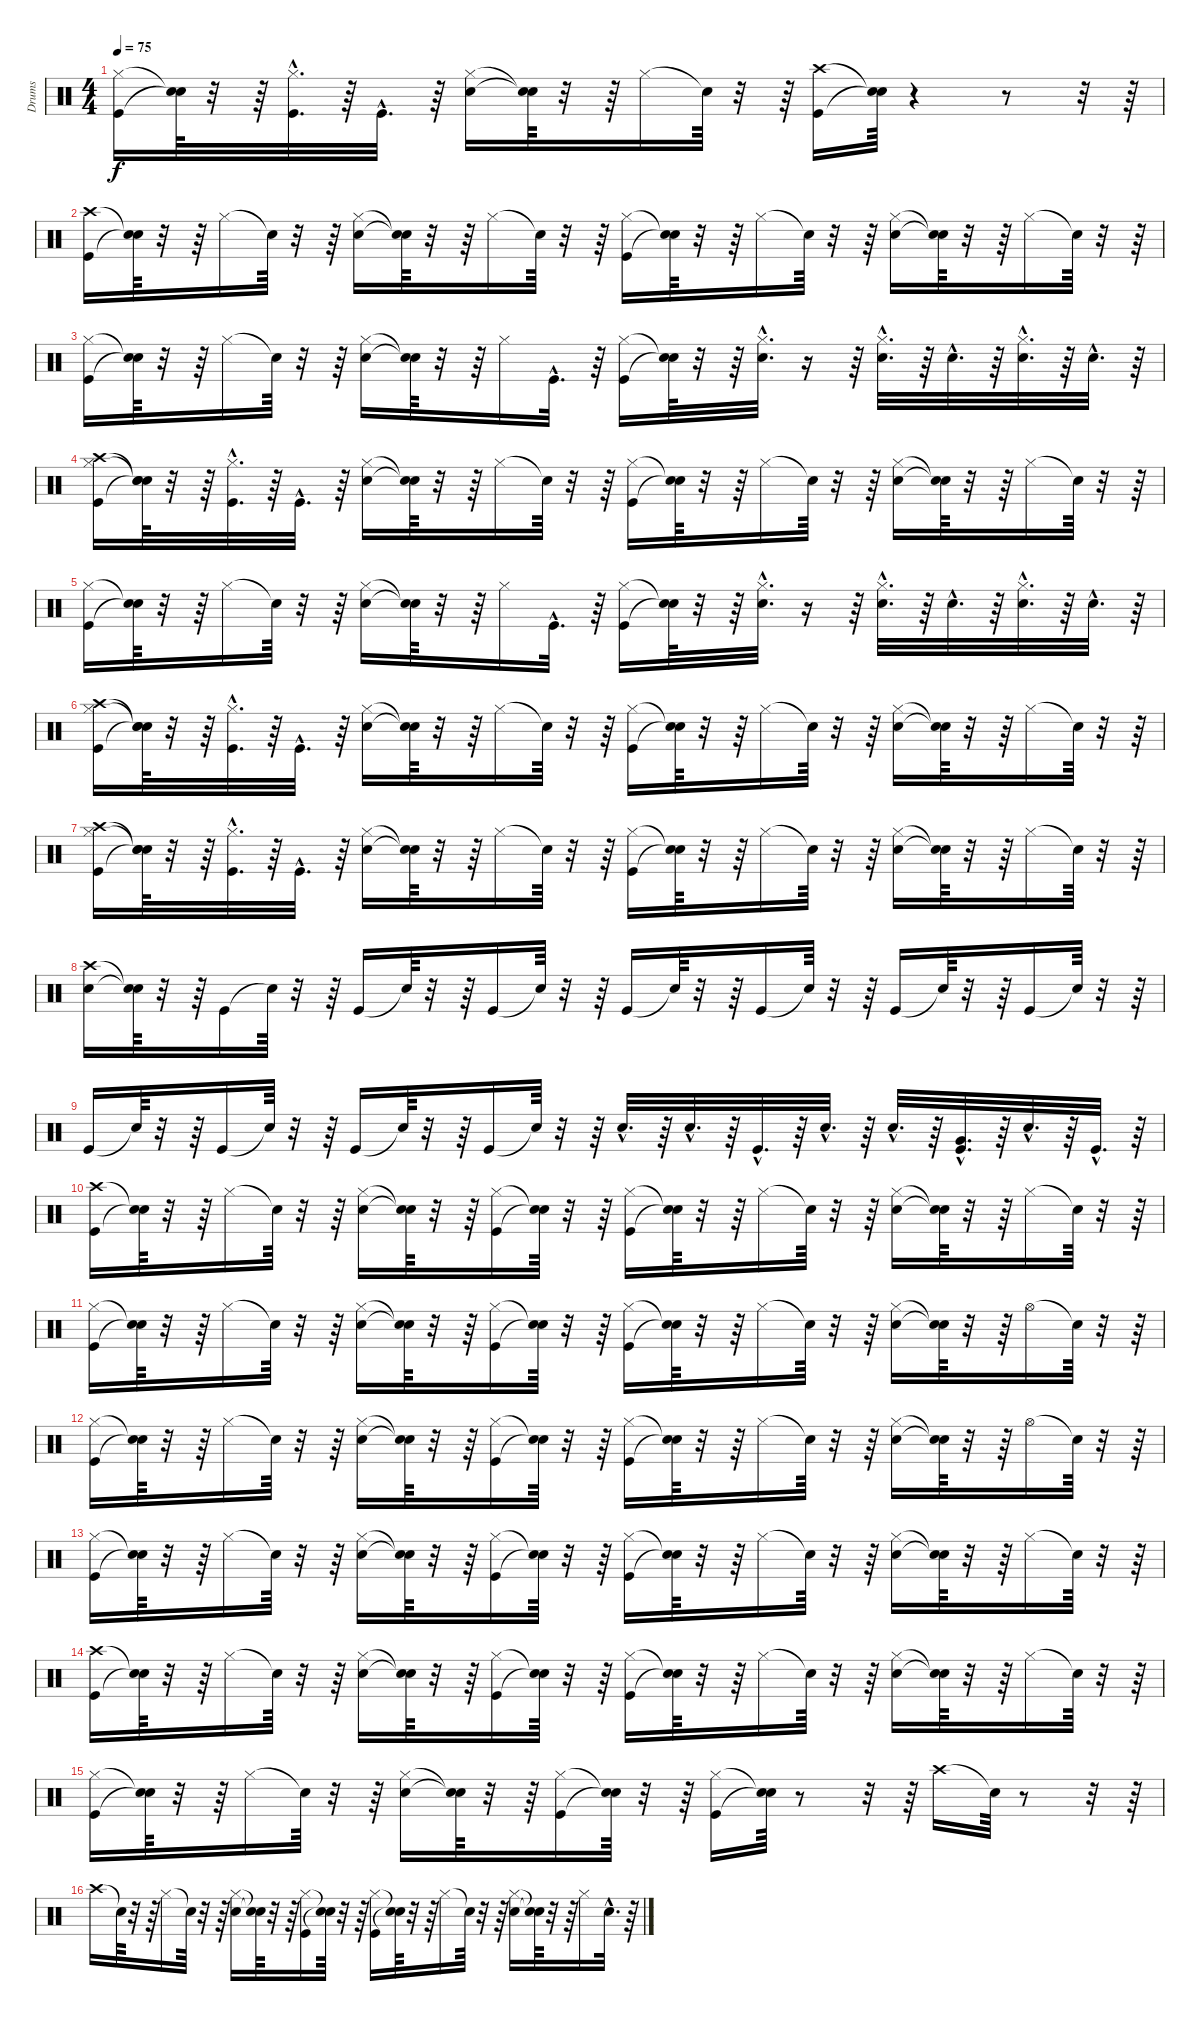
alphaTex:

\track ("Drums" "Drums") {instrument percussion}
\staff {score}
\articulation defaults
\ts (4 4)
\tempo 75
\clef neutral
\ks c
("Kick (hit)" "Hi-Hat (closed)").16{dy f} ("Snare (hit)"{t} "Snare (hit)"{t}).64 r.32 r.64 ("Kick (hit)"{hac} "Hi-Hat (closed)"{hac}).32{d} r.64 "Kick (hit)"{hac}.32{d} r.64 ("Snare (hit) 2" "Hi-Hat (closed)").16 ("Snare (hit)"{t} "Snare (hit)"{t}).64 r.32 r.64 "Hi-Hat (closed)".16 "Snare (hit)"{t}.64 r.32 r.64 ("Crash high (hit)" "Kick (hit)").16 ("Snare (hit)"{t} "Snare (hit)"{t}).64 r.4 r.8 r.32 r.64 |
("Crash high (hit)" "Kick (hit)").16 ("Snare (hit)"{t} "Snare (hit)"{t}).64 r.32 r.64 "Hi-Hat (closed)".16 "Snare (hit)"{t}.64 r.32 r.64 ("Snare (hit) 2" "Hi-Hat (closed)").16 ("Snare (hit)"{t} "Snare (hit)"{t}).64 r.32 r.64 "Hi-Hat (closed)".16 "Snare (hit)"{t}.64 r.32 r.64 ("Hi-Hat (closed)" "Kick (hit)").16 ("Snare (hit)"{t} "Snare (hit)"{t}).64 r.32 r.64 "Hi-Hat (closed)".16 "Snare (hit)"{t}.64 r.32 r.64 ("Hi-Hat (closed)" "Snare (hit) 2").16 ("Snare (hit)"{t} "Snare (hit)"{t}).64 r.32 r.64 "Hi-Hat (closed)".16 "Snare (hit)"{t}.64 r.32 r.64 |
("Kick (hit)" "Hi-Hat (closed)").16 ("Snare (hit)"{t} "Snare (hit)"{t}).64 r.32 r.64 "Hi-Hat (closed)".16 "Snare (hit)"{t}.64 r.32 r.64 ("Snare (hit) 2" "Hi-Hat (closed)").16 ("Snare (hit)"{t} "Snare (hit)"{t}).64 r.32 r.64 "Hi-Hat (closed)".16 "Kick (hit)"{hac}.32{d} r.64 ("Hi-Hat (closed)" "Kick (hit)").16 ("Snare (hit)"{t} "Snare (hit)"{t}).64 r.32 r.64 ("Hi-Hat (closed)"{hac} "Snare (hit) 2"{hac}).32{d} r.16 r.64 ("Hi-Hat (closed)"{hac} "Snare (hit) 2"{hac}).32{d} r.64 "Snare (hit) 2"{hac}.32{d} r.64 ("Hi-Hat (closed)"{hac} "Snare (hit) 2"{hac}).32{d} r.64 "Snare (hit) 2"{hac}.32{d} r.64 |
("Crash high (hit)" "Kick (hit)" "Hi-Hat (closed)").16 ("Snare (hit)"{t} "Snare (hit)"{t} "Snare (hit)"{t}).64 r.32 r.64 ("Hi-Hat (closed)"{hac} "Kick (hit)"{hac}).32{d} r.64 "Kick (hit)"{hac}.32{d} r.64 ("Snare (hit) 2" "Hi-Hat (closed)").16 ("Snare (hit)"{t} "Snare (hit)"{t}).64 r.32 r.64 "Hi-Hat (closed)".16 "Snare (hit)"{t}.64 r.32 r.64 ("Hi-Hat (closed)" "Kick (hit)").16 ("Snare (hit)"{t} "Snare (hit)"{t}).64 r.32 r.64 "Hi-Hat (closed)".16 "Snare (hit)"{t}.64 r.32 r.64 ("Hi-Hat (closed)" "Snare (hit) 2").16 ("Snare (hit)"{t} "Snare (hit)"{t}).64 r.32 r.64 "Hi-Hat (closed)".16 "Snare (hit)"{t}.64 r.32 r.64 |
("Kick (hit)" "Hi-Hat (closed)").16 ("Snare (hit)"{t} "Snare (hit)"{t}).64 r.32 r.64 "Hi-Hat (closed)".16 "Snare (hit)"{t}.64 r.32 r.64 ("Snare (hit) 2" "Hi-Hat (closed)").16 ("Snare (hit)"{t} "Snare (hit)"{t}).64 r.32 r.64 "Hi-Hat (closed)".16 "Kick (hit)"{hac}.32{d} r.64 ("Hi-Hat (closed)" "Kick (hit)").16 ("Snare (hit)"{t} "Snare (hit)"{t}).64 r.32 r.64 ("Hi-Hat (closed)"{hac} "Snare (hit) 2"{hac}).32{d} r.16 r.64 ("Hi-Hat (closed)"{hac} "Snare (hit) 2"{hac}).32{d} r.64 "Snare (hit) 2"{hac}.32{d} r.64 ("Hi-Hat (closed)"{hac} "Snare (hit) 2"{hac}).32{d} r.64 "Snare (hit) 2"{hac}.32{d} r.64 |
("Crash high (hit)" "Kick (hit)" "Hi-Hat (closed)").16 ("Snare (hit)"{t} "Snare (hit)"{t} "Snare (hit)"{t}).64 r.32 r.64 ("Hi-Hat (closed)"{hac} "Kick (hit)"{hac}).32{d} r.64 "Kick (hit)"{hac}.32{d} r.64 ("Snare (hit) 2" "Hi-Hat (closed)").16 ("Snare (hit)"{t} "Snare (hit)"{t}).64 r.32 r.64 "Hi-Hat (closed)".16 "Snare (hit)"{t}.64 r.32 r.64 ("Hi-Hat (closed)" "Kick (hit)").16 ("Snare (hit)"{t} "Snare (hit)"{t}).64 r.32 r.64 "Hi-Hat (closed)".16 "Snare (hit)"{t}.64 r.32 r.64 ("Hi-Hat (closed)" "Snare (hit) 2").16 ("Snare (hit)"{t} "Snare (hit)"{t}).64 r.32 r.64 "Hi-Hat (closed)".16 "Snare (hit)"{t}.64 r.32 r.64 |
("Crash high (hit)" "Kick (hit)" "Hi-Hat (closed)").16 ("Snare (hit)"{t} "Snare (hit)"{t} "Snare (hit)"{t}).64 r.32 r.64 ("Hi-Hat (closed)"{hac} "Kick (hit)"{hac}).32{d} r.64 "Kick (hit)"{hac}.32{d} r.64 ("Snare (hit) 2" "Hi-Hat (closed)").16 ("Snare (hit)"{t} "Snare (hit)"{t}).64 r.32 r.64 "Hi-Hat (closed)".16 "Snare (hit)"{t}.64 r.32 r.64 ("Hi-Hat (closed)" "Kick (hit)").16 ("Snare (hit)"{t} "Snare (hit)"{t}).64 r.32 r.64 "Hi-Hat (closed)".16 "Snare (hit)"{t}.64 r.32 r.64 ("Hi-Hat (closed)" "Snare (hit) 2").16 ("Snare (hit)"{t} "Snare (hit)"{t}).64 r.32 r.64 "Hi-Hat (closed)".16 "Snare (hit)"{t}.64 r.32 r.64 |
("Crash high (hit)" "Snare (hit) 2").16 ("Snare (hit)"{t} "Snare (hit)"{t}).64 r.32 r.64 "Kick (hit)".16 "Snare (hit)"{t}.64 r.32 r.64 "Kick (hit)".16 "Snare (hit)"{t}.64 r.32 r.64 "Kick (hit)".16 "Snare (hit)"{t}.64 r.32 r.64 "Kick (hit)".16 "Snare (hit)"{t}.64 r.32 r.64 "Kick (hit)".16 "Snare (hit)"{t}.64 r.32 r.64 "Kick (hit)".16 "Snare (hit)"{t}.64 r.32 r.64 "Kick (hit)".16 "Snare (hit)"{t}.64 r.32 r.64 |
"Kick (hit)".16 "Snare (hit)"{t}.64 r.32 r.64 "Kick (hit)".16 "Snare (hit)"{t}.64 r.32 r.64 "Kick (hit)".16 "Snare (hit)"{t}.64 r.32 r.64 "Kick (hit)".16 "Snare (hit)"{t}.64 r.32 r.64 "Snare (hit) 2"{hac}.32{d} r.64 "Snare (hit) 2"{hac}.32{d} r.64 "Kick (hit)"{hac}.32{d} r.64 "Snare (hit) 2"{hac}.32{d} r.64 "Snare (hit) 2"{hac}.32{d} r.64 ("Kick (hit)"{hac} "Very Low Tom (hit)"{hac}).32{d} r.64 "Snare (hit) 2"{hac}.32{d} r.64 "Kick (hit)"{hac}.32{d} r.64 |
("Crash high (hit)" "Kick (hit)").16 ("Snare (hit)"{t} "Snare (hit)"{t}).64 r.32 r.64 "Hi-Hat (closed)".16 "Snare (hit)"{t}.64 r.32 r.64 ("Snare (hit) 2" "Hi-Hat (closed)").16 ("Snare (hit)"{t} "Snare (hit)"{t}).64 r.32 r.64 ("Hi-Hat (closed)" "Kick (hit)").16 ("Snare (hit)"{t} "Snare (hit)"{t}).64 r.32 r.64 ("Hi-Hat (closed)" "Kick (hit)").16 ("Snare (hit)"{t} "Snare (hit)"{t}).64 r.32 r.64 "Hi-Hat (closed)".16 "Snare (hit)"{t}.64 r.32 r.64 ("Hi-Hat (closed)" "Snare (hit) 2").16 ("Snare (hit)"{t} "Snare (hit)"{t}).64 r.32 r.64 "Hi-Hat (closed)".16 "Snare (hit)"{t}.64 r.32 r.64 |
("Kick (hit)" "Hi-Hat (closed)").16 ("Snare (hit)"{t} "Snare (hit)"{t}).64 r.32 r.64 "Hi-Hat (closed)".16 "Snare (hit)"{t}.64 r.32 r.64 ("Snare (hit) 2" "Hi-Hat (closed)").16 ("Snare (hit)"{t} "Snare (hit)"{t}).64 r.32 r.64 ("Hi-Hat (closed)" "Kick (hit)").16 ("Snare (hit)"{t} "Snare (hit)"{t}).64 r.32 r.64 ("Hi-Hat (closed)" "Kick (hit)").16 ("Snare (hit)"{t} "Snare (hit)"{t}).64 r.32 r.64 "Hi-Hat (closed)".16 "Snare (hit)"{t}.64 r.32 r.64 ("Hi-Hat (closed)" "Snare (hit) 2").16 ("Snare (hit)"{t} "Snare (hit)"{t}).64 r.32 r.64 "Hi-Hat (open)".16 "Snare (hit)"{t}.64 r.32 r.64 |
("Kick (hit)" "Hi-Hat (closed)").16 ("Snare (hit)"{t} "Snare (hit)"{t}).64 r.32 r.64 "Hi-Hat (closed)".16 "Snare (hit)"{t}.64 r.32 r.64 ("Snare (hit) 2" "Hi-Hat (closed)").16 ("Snare (hit)"{t} "Snare (hit)"{t}).64 r.32 r.64 ("Hi-Hat (closed)" "Kick (hit)").16 ("Snare (hit)"{t} "Snare (hit)"{t}).64 r.32 r.64 ("Hi-Hat (closed)" "Kick (hit)").16 ("Snare (hit)"{t} "Snare (hit)"{t}).64 r.32 r.64 "Hi-Hat (closed)".16 "Snare (hit)"{t}.64 r.32 r.64 ("Hi-Hat (closed)" "Snare (hit) 2").16 ("Snare (hit)"{t} "Snare (hit)"{t}).64 r.32 r.64 "Hi-Hat (open)".16 "Snare (hit)"{t}.64 r.32 r.64 |
("Kick (hit)" "Hi-Hat (closed)").16 ("Snare (hit)"{t} "Snare (hit)"{t}).64 r.32 r.64 "Hi-Hat (closed)".16 "Snare (hit)"{t}.64 r.32 r.64 ("Snare (hit) 2" "Hi-Hat (closed)").16 ("Snare (hit)"{t} "Snare (hit)"{t}).64 r.32 r.64 ("Kick (hit)" "Hi-Hat (closed)").16 ("Snare (hit)"{t} "Snare (hit)"{t}).64 r.32 r.64 ("Kick (hit)" "Hi-Hat (closed)").16 ("Snare (hit)"{t} "Snare (hit)"{t}).64 r.32 r.64 "Hi-Hat (closed)".16 "Snare (hit)"{t}.64 r.32 r.64 ("Snare (hit) 2" "Hi-Hat (closed)").16 ("Snare (hit)"{t} "Snare (hit)"{t}).64 r.32 r.64 "Hi-Hat (closed)".16 "Snare (hit)"{t}.64 r.32 r.64 |
("Kick (hit)" "Crash high (hit)").16 ("Snare (hit)"{t} "Snare (hit)"{t}).64 r.32 r.64 "Hi-Hat (closed)".16 "Snare (hit)"{t}.64 r.32 r.64 ("Snare (hit) 2" "Hi-Hat (closed)").16 ("Snare (hit)"{t} "Snare (hit)"{t}).64 r.32 r.64 ("Hi-Hat (closed)" "Kick (hit)").16 ("Snare (hit)"{t} "Snare (hit)"{t}).64 r.32 r.64 ("Hi-Hat (closed)" "Kick (hit)").16 ("Snare (hit)"{t} "Snare (hit)"{t}).64 r.32 r.64 "Hi-Hat (closed)".16 "Snare (hit)"{t}.64 r.32 r.64 ("Hi-Hat (closed)" "Snare (hit) 2").16 ("Snare (hit)"{t} "Snare (hit)"{t}).64 r.32 r.64 "Hi-Hat (closed)".16 "Snare (hit)"{t}.64 r.32 r.64 |
("Kick (hit)" "Hi-Hat (closed)").16 ("Snare (hit)"{t} "Snare (hit)"{t}).64 r.32 r.64 "Hi-Hat (closed)".16 "Snare (hit)"{t}.64 r.32 r.64 ("Snare (hit) 2" "Hi-Hat (closed)").16 ("Snare (hit)"{t} "Snare (hit)"{t}).64 r.32 r.64 ("Hi-Hat (closed)" "Kick (hit)").16 ("Snare (hit)"{t} "Snare (hit)"{t}).64 r.32 r.64 ("Hi-Hat (closed)" "Kick (hit)").16 ("Snare (hit)"{t} "Snare (hit)"{t}).64 r.8 r.32 r.64 "Crash high (hit)".16 "Snare (hit)"{t}.64 r.8 r.32 r.64 |
"Crash high (hit)".16 "Snare (hit)"{t}.64 r.32 r.64 "Hi-Hat (closed)".16 "Snare (hit)"{t}.64 r.32 r.64 ("Snare (hit) 2" "Hi-Hat (closed)").16 ("Snare (hit)"{t} "Snare (hit)"{t}).64 r.32 r.64 ("Kick (hit)" "Hi-Hat (closed)").16 ("Snare (hit)"{t} "Snare (hit)"{t}).64 r.32 r.64 ("Kick (hit)" "Hi-Hat (closed)").16 ("Snare (hit)"{t} "Snare (hit)"{t}).64 r.32 r.64 "Hi-Hat (closed)".16 "Snare (hit)"{t}.64 r.32 r.64 ("Snare (hit) 2" "Hi-Hat (closed)").16 ("Snare (hit)"{t} "Snare (hit)"{t}).64 r.32 r.64 "Hi-Hat (closed)".16 "Snare (hit) 2"{hac}.32{d} r.64
